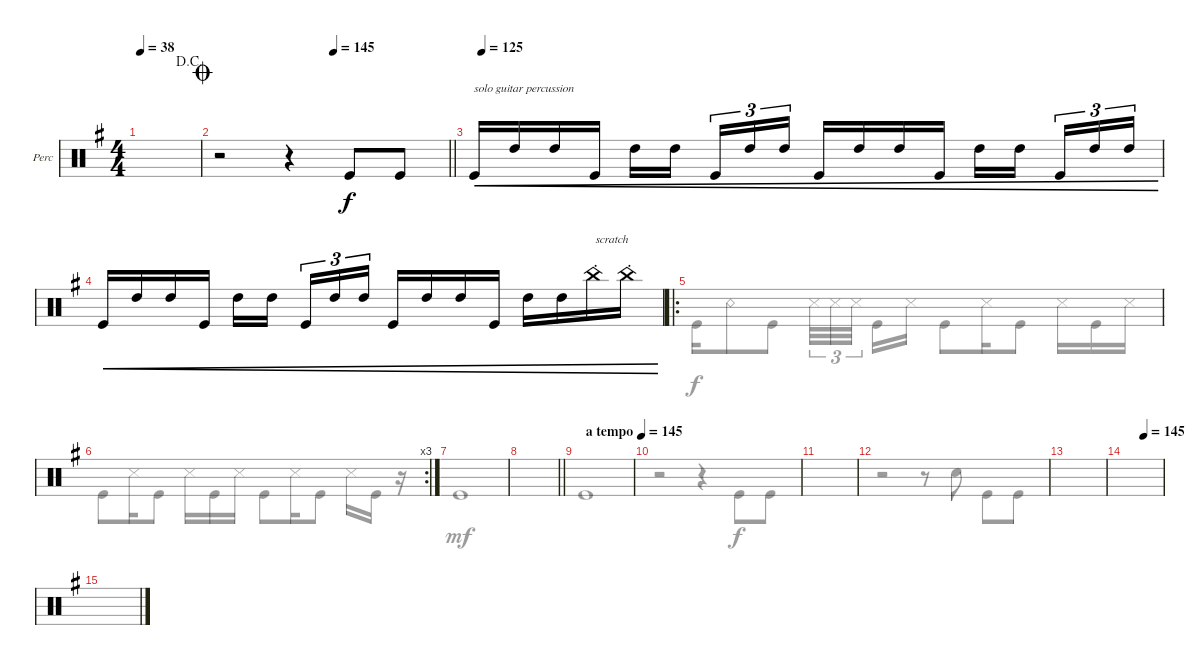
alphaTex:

\defaultSystemsLayout 4
\bracketExtendMode groupsimilarinstruments
\firstSystemTrackNameOrientation horizontal
\otherSystemsTrackNameOrientation horizontal
\track ("Percussion" "Perc") {instrument percussion}
\staff {score}
\articulation defaults
\voice
\ts (4 4)
\scale
0.197012
\jump dacapo
\tempo 38
\accidentals auto
\clef neutral
\ottava regular
\simile none
\ks eminor
|
\scale
0.408114
\jump coda
\tempo (145 hide)
\tempo (145 0.5)
\tempo (39 0.964286 hide)
\barLineRight lightlight
r.2 r.4 "Kick (hit)".8 "Kick (hit)".8 |
\scale
0.264694
\tempo (125 0.0126582)
"Kick (hit)".16{txt "solo guitar percussion" cre} "High Tom (hit)".16{cre} "High Tom (hit)".16{cre} "Kick (hit)".16{cre} "High Tom (hit)".16{cre} "High Tom (hit)".16{cre} "Kick (hit)".16{tu (3 2) cre} "High Tom (hit)".16{tu (3 2) cre} "High Tom (hit)".16{tu (3 2) cre} "Kick (hit)".16{cre} "High Tom (hit)".16{cre} "High Tom (hit)".16{cre} "Kick (hit)".16{cre} "High Tom (hit)".16{cre} "High Tom (hit)".16{cre} "Kick (hit)".16{tu (3 2) cre} "High Tom (hit)".16{tu (3 2) cre} "High Tom (hit)".16{tu (3 2) cre} |
\scale
0.262209
\scale
0.333333 "Kick (hit)".16{cre} "High Tom (hit)".16{cre} "High Tom (hit)".16{cre} "Kick (hit)".16{cre} "High Tom (hit)".16{cre} "High Tom (hit)".16{cre} "Kick (hit)".16{tu (3 2) cre} "High Tom (hit)".16{tu (3 2) cre} "High Tom (hit)".16{tu (3 2) cre} "Kick (hit)".16{cre} "High Tom (hit)".16{cre} "High Tom (hit)".16{cre} "Kick (hit)".16{cre} "High Tom (hit)".16{cre} "High Tom (hit)".16{cre} "China (hit)"{st}.16{txt "scratch" cre} "China (hit)"{st}.16{cre} |
\ro
\scale
0.598147
\scale
0.333333 |
\rc 3
\scale
0.401386 |
\scale
0.597164
\scale
0.333333 |
\scale
0.400129
\barLineRight lightlight
|
\scale
0.525195
\tempo (145 "a tempo")
|
\scale
0.475575 |
\scale
0.50038 |
\scale
0.499793 |
|
\tempo (145 0.5)
|
\scale
0.548073
\tempo (110 hide)
|
\scale
0.451953
\voice
\clef neutral
\ottava regular
\simile none
\ks eminor
|
\barLineRight lightlight
|
|
\scale
0.333333 |
\scale
0.333333 "Kick (hit)".16{dy f} "Snare (rim shot)".8 "Kick (hit)".8 "Snare (side stick) 3".32{tu (3 2)} "Snare (side stick) 3".32{tu (3 2)} "Snare (side stick) 3".32{tu (3 2)} "Kick (hit)".16 "Snare (side stick) 3".16 "Kick (hit)".8 "Snare (side stick) 3".16 "Kick (hit)".8 "Snare (side stick) 3".16 "Kick (hit)".16 "Snare (side stick) 3".16 |
"Kick (hit)".8 "Snare (side stick) 3".16 "Kick (hit)".8 "Snare (side stick) 3".16 "Kick (hit)".16 "Snare (side stick) 3".16 "Kick (hit)".8 "Snare (side stick) 3".16 "Kick (hit)".8 "Snare (side stick) 3".16 "Kick (hit)".16 r.16 |
\scale
0.333333 "Kick (hit)".1{dy mf} |
\barLineRight lightlight
|
"Kick (hit)".1 |
r.2 r.4 "Kick (hit)".8{dy f} "Kick (hit)".8 |
|
r.2 r.8 "Snare (hit) 2".8 "Kick (hit)".8 "Kick (hit)".8 |
|
|
|
